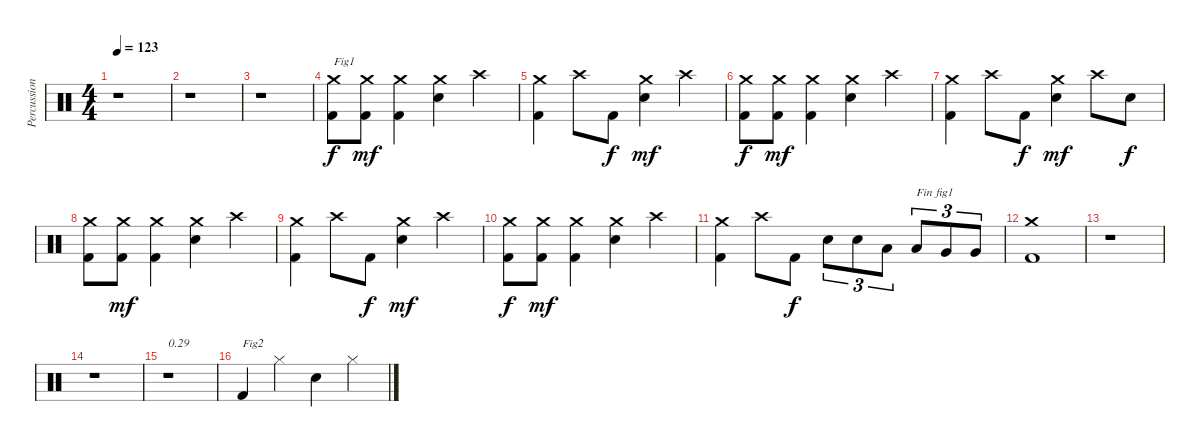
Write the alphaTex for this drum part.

\track ("Percussions" "Percussion") {instrument percussion}
\staff {score}
\articulation defaults
\ts (4 4)
\tempo 123
\clef neutral
\ks c
r.1{dy f} |
r.1 |
r.1 |
("Kick (hit) 2" "Crash medium (hit)").8{txt "Fig1"} ("Kick (hit) 2" "Crash medium (hit)").8{dy mf} ("Kick (hit) 2" "Crash medium (hit)").4 ("Electric Snare (hit)" "Crash medium (hit)").4 "Crash high (hit)".4 |
("Kick (hit) 2" "Crash medium (hit)").4 "Crash high (hit)".8 "Kick (hit) 2".8{dy f} ("Electric Snare (hit)" "Crash medium (hit)").4{dy mf} "Crash high (hit)".4 |
("Kick (hit) 2" "Crash medium (hit)").8{dy f} ("Kick (hit) 2" "Crash medium (hit)").8{dy mf} ("Kick (hit) 2" "Crash medium (hit)").4 ("Electric Snare (hit)" "Crash medium (hit)").4 "Crash high (hit)".4 |
("Kick (hit) 2" "Crash medium (hit)").4 "Crash high (hit)".8 "Kick (hit) 2".8{dy f} ("Electric Snare (hit)" "Crash medium (hit)").4{dy mf} "Crash high (hit)".8 "Electric Snare (hit)".8{dy f} |
("Kick (hit) 2" "Crash medium (hit)").8 ("Kick (hit) 2" "Crash medium (hit)").8{dy mf} ("Kick (hit) 2" "Crash medium (hit)").4 ("Electric Snare (hit)" "Crash medium (hit)").4 "Crash high (hit)".4 |
("Kick (hit) 2" "Crash medium (hit)").4 "Crash high (hit)".8 "Kick (hit) 2".8{dy f} ("Electric Snare (hit)" "Crash medium (hit)").4{dy mf} "Crash high (hit)".4 |
("Kick (hit) 2" "Crash medium (hit)").8{dy f} ("Kick (hit) 2" "Crash medium (hit)").8{dy mf} ("Kick (hit) 2" "Crash medium (hit)").4 ("Electric Snare (hit)" "Crash medium (hit)").4 "Crash high (hit)".4 |
("Kick (hit) 2" "Crash medium (hit)").4 "Crash high (hit)".8 "Kick (hit) 2".8{dy f} "Electric Snare (hit)".8{tu (3 2)} "Electric Snare (hit)".8{tu (3 2)} "Low Tom (hit)".8{tu (3 2)} "Low Tom (hit)".8{tu (3 2) txt "Fin fig1"} "Very Low Tom (hit)".8{tu (3 2)} "Very Low Tom (hit)".8{tu (3 2)} |
("Kick (hit) 2" "Crash medium (hit)").1 |
r.1 |
r.1 |
r.1{txt "0.29"} |
"Kick (hit) 2".4{txt "Fig2"} "Hi-Hat (closed)".4 "Electric Snare (hit)".4 "Hi-Hat (closed)".4
